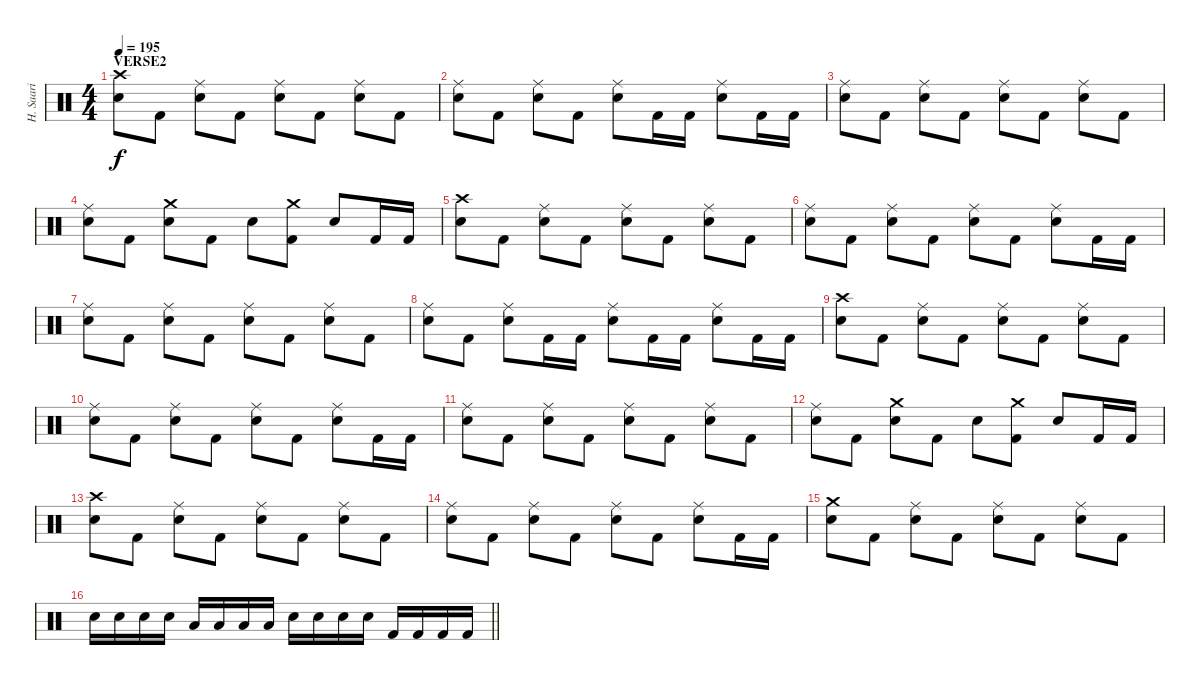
\track ("H. Saari" "H. Saari") {instrument percussion}
\staff {score}
\articulation defaults
\ts (4 4)
\section ("" "VERSE2")
\tempo 195
\clef neutral
\ks c
("Crash high (hit)" "Electric Snare (hit)").8{dy f} "Kick (hit) 2".8 ("Ride (middle)" "Electric Snare (hit)").8 "Kick (hit) 2".8 ("Ride (middle)" "Electric Snare (hit)").8 "Kick (hit) 2".8 ("Ride (middle)" "Electric Snare (hit)").8 "Kick (hit) 2".8 |
("Ride (middle)" "Electric Snare (hit)").8 "Kick (hit) 2".8 ("Ride (middle)" "Electric Snare (hit)").8 "Kick (hit) 2".8 ("Ride (middle)" "Electric Snare (hit)").8 "Kick (hit) 2".16 "Kick (hit) 2".16 ("Ride (middle)" "Electric Snare (hit)").8 "Kick (hit) 2".16 "Kick (hit) 2".16 |
("Ride (middle)" "Electric Snare (hit)").8 "Kick (hit) 2".8 ("Ride (middle)" "Electric Snare (hit)").8 "Kick (hit) 2".8 ("Ride (middle)" "Electric Snare (hit)").8 "Kick (hit) 2".8 ("Ride (middle)" "Electric Snare (hit)").8 "Kick (hit) 2".8 |
("Ride (middle)" "Electric Snare (hit)").8 "Kick (hit) 2".8 ("Crash medium (hit)" "Electric Snare (hit)").8 "Kick (hit) 2".8 "Electric Snare (hit)".8 ("Crash medium (hit)" "Kick (hit) 2").8 "Electric Snare (hit)".8 "Kick (hit) 2".16 "Kick (hit) 2".16 |
("Crash high (hit)" "Electric Snare (hit)").8 "Kick (hit) 2".8 ("Ride (middle)" "Electric Snare (hit)").8 "Kick (hit) 2".8 ("Ride (middle)" "Electric Snare (hit)").8 "Kick (hit) 2".8 ("Ride (middle)" "Electric Snare (hit)").8 "Kick (hit) 2".8 |
("Ride (middle)" "Electric Snare (hit)").8 "Kick (hit) 2".8 ("Ride (middle)" "Electric Snare (hit)").8 "Kick (hit) 2".8 ("Ride (middle)" "Electric Snare (hit)").8 "Kick (hit) 2".8 ("Ride (middle)" "Electric Snare (hit)").8 "Kick (hit) 2".16 "Kick (hit) 2".16 |
("Ride (middle)" "Electric Snare (hit)").8 "Kick (hit) 2".8 ("Ride (middle)" "Electric Snare (hit)").8 "Kick (hit) 2".8 ("Ride (middle)" "Electric Snare (hit)").8 "Kick (hit) 2".8 ("Ride (middle)" "Electric Snare (hit)").8 "Kick (hit) 2".8 |
("Ride (middle)" "Electric Snare (hit)").8 "Kick (hit) 2".8 ("Ride (middle)" "Electric Snare (hit)").8 "Kick (hit) 2".16 "Kick (hit) 2".16 ("Ride (middle)" "Electric Snare (hit)").8 "Kick (hit) 2".16 "Kick (hit) 2".16 ("Ride (middle)" "Electric Snare (hit)").8 "Kick (hit) 2".16 "Kick (hit) 2".16 |
("Crash high (hit)" "Electric Snare (hit)").8 "Kick (hit) 2".8 ("Ride (middle)" "Electric Snare (hit)").8 "Kick (hit) 2".8 ("Ride (middle)" "Electric Snare (hit)").8 "Kick (hit) 2".8 ("Ride (middle)" "Electric Snare (hit)").8 "Kick (hit) 2".8 |
("Ride (middle)" "Electric Snare (hit)").8 "Kick (hit) 2".8 ("Ride (middle)" "Electric Snare (hit)").8 "Kick (hit) 2".8 ("Ride (middle)" "Electric Snare (hit)").8 "Kick (hit) 2".8 ("Ride (middle)" "Electric Snare (hit)").8 "Kick (hit) 2".16 "Kick (hit) 2".16 |
("Ride (middle)" "Electric Snare (hit)").8 "Kick (hit) 2".8 ("Ride (middle)" "Electric Snare (hit)").8 "Kick (hit) 2".8 ("Ride (middle)" "Electric Snare (hit)").8 "Kick (hit) 2".8 ("Ride (middle)" "Electric Snare (hit)").8 "Kick (hit) 2".8 |
("Ride (middle)" "Electric Snare (hit)").8 "Kick (hit) 2".8 ("Crash medium (hit)" "Electric Snare (hit)").8 "Kick (hit) 2".8 "Electric Snare (hit)".8 ("Crash medium (hit)" "Kick (hit) 2").8 "Electric Snare (hit)".8 "Kick (hit) 2".16 "Kick (hit) 2".16 |
("Crash high (hit)" "Electric Snare (hit)").8 "Kick (hit) 2".8 ("Ride (middle)" "Electric Snare (hit)").8 "Kick (hit) 2".8 ("Ride (middle)" "Electric Snare (hit)").8 "Kick (hit) 2".8 ("Ride (middle)" "Electric Snare (hit)").8 "Kick (hit) 2".8 |
("Ride (middle)" "Electric Snare (hit)").8 "Kick (hit) 2".8 ("Ride (middle)" "Electric Snare (hit)").8 "Kick (hit) 2".8 ("Ride (middle)" "Electric Snare (hit)").8 "Kick (hit) 2".8 ("Ride (middle)" "Electric Snare (hit)").8 "Kick (hit) 2".16 "Kick (hit) 2".16 |
("Crash medium (hit)" "Electric Snare (hit)").8 "Kick (hit) 2".8 ("Ride (middle)" "Electric Snare (hit)").8 "Kick (hit) 2".8 ("Ride (middle)" "Electric Snare (hit)").8 "Kick (hit) 2".8 ("Ride (middle)" "Electric Snare (hit)").8 "Kick (hit) 2".8 |
\barLineRight lightlight "Electric Snare (hit)".16 "Electric Snare (hit)".16 "Electric Snare (hit)".16 "Electric Snare (hit)".16 "Low Tom (hit)".16 "Low Tom (hit)".16 "Low Tom (hit)".16 "Low Tom (hit)".16 "Electric Snare (hit)".16 "Electric Snare (hit)".16 "Electric Snare (hit)".16 "Electric Snare (hit)".16 "Kick (hit) 2".16 "Kick (hit) 2".16 "Kick (hit) 2".16 "Kick (hit) 2".16
